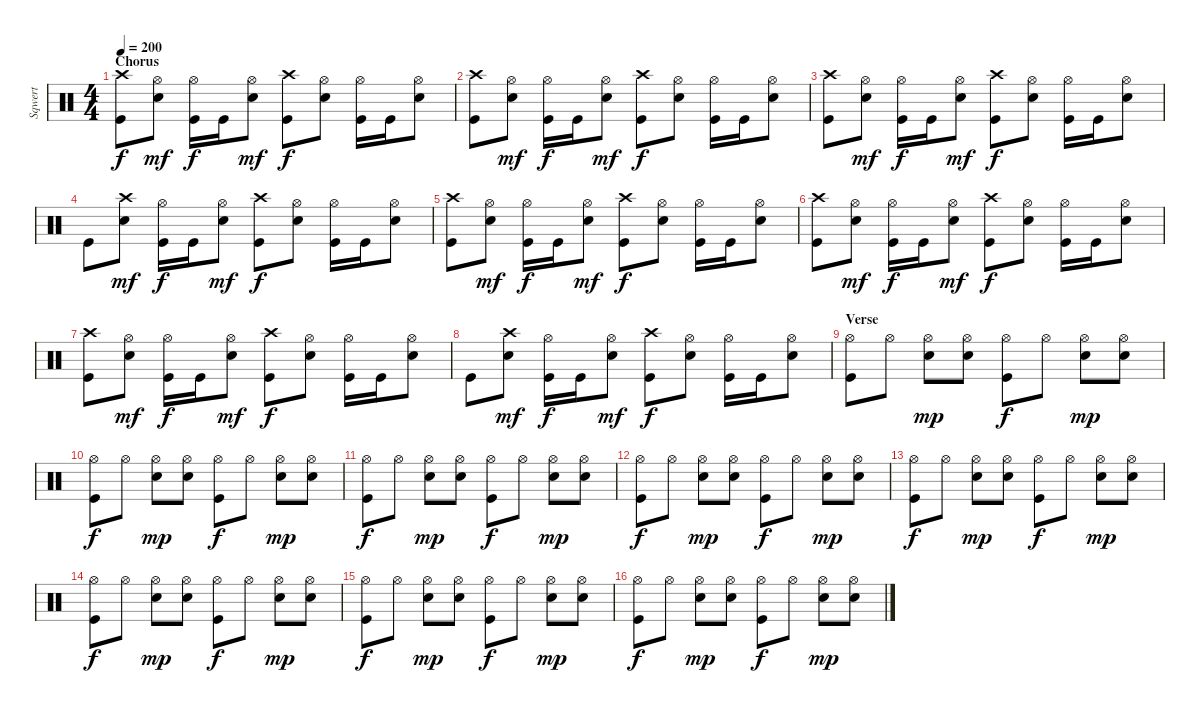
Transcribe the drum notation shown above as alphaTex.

\track ("Sqwert" "Sqwert") {instrument percussion}
\staff {score}
\articulation defaults
\ts (4 4)
\section ("" "Chorus")
\tempo 200
\clef neutral
\ks c
("Crash high (hit)" "Kick (hit)").8{dy f} ("Hi-Hat (open)" "Snare (hit) 2").8{dy mf} ("Hi-Hat (open)" "Kick (hit)").16{dy f} "Kick (hit)".16 ("Hi-Hat (open)" "Snare (hit) 2").8{dy mf} ("Crash high (hit)" "Kick (hit)").8{dy f} ("Hi-Hat (open)" "Snare (hit) 2").8 ("Hi-Hat (open)" "Kick (hit)").16 "Kick (hit)".16 ("Hi-Hat (open)" "Snare (hit) 2").8 |
("Crash high (hit)" "Kick (hit)").8 ("Hi-Hat (open)" "Snare (hit) 2").8{dy mf} ("Hi-Hat (open)" "Kick (hit)").16{dy f} "Kick (hit)".16 ("Hi-Hat (open)" "Snare (hit) 2").8{dy mf} ("Crash high (hit)" "Kick (hit)").8{dy f} ("Hi-Hat (open)" "Snare (hit) 2").8 ("Hi-Hat (open)" "Kick (hit)").16 "Kick (hit)".16 ("Hi-Hat (open)" "Snare (hit) 2").8 |
("Crash high (hit)" "Kick (hit)").8 ("Hi-Hat (open)" "Snare (hit) 2").8{dy mf} ("Hi-Hat (open)" "Kick (hit)").16{dy f} "Kick (hit)".16 ("Hi-Hat (open)" "Snare (hit) 2").8{dy mf} ("Crash high (hit)" "Kick (hit)").8{dy f} ("Hi-Hat (open)" "Snare (hit) 2").8 ("Hi-Hat (open)" "Kick (hit)").16 "Kick (hit)".16 ("Hi-Hat (open)" "Snare (hit) 2").8 |
"Kick (hit)".8 ("Crash high (hit)" "Snare (hit) 2").8{dy mf} ("Hi-Hat (open)" "Kick (hit)").16{dy f} "Kick (hit)".16 ("Hi-Hat (open)" "Snare (hit) 2").8{dy mf} ("Crash high (hit)" "Kick (hit)").8{dy f} ("Hi-Hat (open)" "Snare (hit) 2").8 ("Hi-Hat (open)" "Kick (hit)").16 "Kick (hit)".16 ("Hi-Hat (open)" "Snare (hit) 2").8 |
("Crash high (hit)" "Kick (hit)").8 ("Hi-Hat (open)" "Snare (hit) 2").8{dy mf} ("Hi-Hat (open)" "Kick (hit)").16{dy f} "Kick (hit)".16 ("Hi-Hat (open)" "Snare (hit) 2").8{dy mf} ("Crash high (hit)" "Kick (hit)").8{dy f} ("Hi-Hat (open)" "Snare (hit) 2").8 ("Hi-Hat (open)" "Kick (hit)").16 "Kick (hit)".16 ("Hi-Hat (open)" "Snare (hit) 2").8 |
("Crash high (hit)" "Kick (hit)").8 ("Hi-Hat (open)" "Snare (hit) 2").8{dy mf} ("Hi-Hat (open)" "Kick (hit)").16{dy f} "Kick (hit)".16 ("Hi-Hat (open)" "Snare (hit) 2").8{dy mf} ("Crash high (hit)" "Kick (hit)").8{dy f} ("Hi-Hat (open)" "Snare (hit) 2").8 ("Hi-Hat (open)" "Kick (hit)").16 "Kick (hit)".16 ("Hi-Hat (open)" "Snare (hit) 2").8 |
("Crash high (hit)" "Kick (hit)").8 ("Hi-Hat (open)" "Snare (hit) 2").8{dy mf} ("Hi-Hat (open)" "Kick (hit)").16{dy f} "Kick (hit)".16 ("Hi-Hat (open)" "Snare (hit) 2").8{dy mf} ("Crash high (hit)" "Kick (hit)").8{dy f} ("Hi-Hat (open)" "Snare (hit) 2").8 ("Hi-Hat (open)" "Kick (hit)").16 "Kick (hit)".16 ("Hi-Hat (open)" "Snare (hit) 2").8 |
"Kick (hit)".8 ("Crash high (hit)" "Snare (hit) 2").8{dy mf} ("Hi-Hat (open)" "Kick (hit)").16{dy f} "Kick (hit)".16 ("Hi-Hat (open)" "Snare (hit) 2").8{dy mf} ("Crash high (hit)" "Kick (hit)").8{dy f} ("Hi-Hat (open)" "Snare (hit) 2").8 ("Hi-Hat (open)" "Kick (hit)").16 "Kick (hit)".16 ("Hi-Hat (open)" "Snare (hit) 2").8 |
\section ("" "Verse")
("Hi-Hat (open)" "Kick (hit)").8 "Hi-Hat (open)".8 ("Hi-Hat (open)" "Snare (hit) 2").8{dy mp} ("Hi-Hat (open)" "Snare (hit) 2").8 ("Hi-Hat (open)" "Kick (hit)").8{dy f} "Hi-Hat (open)".8 ("Hi-Hat (open)" "Snare (hit) 2").8{dy mp} ("Hi-Hat (open)" "Snare (hit) 2").8 |
("Hi-Hat (open)" "Kick (hit)").8{dy f} "Hi-Hat (open)".8 ("Hi-Hat (open)" "Snare (hit) 2").8{dy mp} ("Hi-Hat (open)" "Snare (hit) 2").8 ("Hi-Hat (open)" "Kick (hit)").8{dy f} "Hi-Hat (open)".8 ("Hi-Hat (open)" "Snare (hit) 2").8{dy mp} ("Hi-Hat (open)" "Snare (hit) 2").8 |
("Hi-Hat (open)" "Kick (hit)").8{dy f} "Hi-Hat (open)".8 ("Hi-Hat (open)" "Snare (hit) 2").8{dy mp} ("Hi-Hat (open)" "Snare (hit) 2").8 ("Hi-Hat (open)" "Kick (hit)").8{dy f} "Hi-Hat (open)".8 ("Hi-Hat (open)" "Snare (hit) 2").8{dy mp} ("Hi-Hat (open)" "Snare (hit) 2").8 |
("Hi-Hat (open)" "Kick (hit)").8{dy f} "Hi-Hat (open)".8 ("Hi-Hat (open)" "Snare (hit) 2").8{dy mp} ("Hi-Hat (open)" "Snare (hit) 2").8 ("Hi-Hat (open)" "Kick (hit)").8{dy f} "Hi-Hat (open)".8 ("Hi-Hat (open)" "Snare (hit) 2").8{dy mp} ("Hi-Hat (open)" "Snare (hit) 2").8 |
("Hi-Hat (open)" "Kick (hit)").8{dy f} "Hi-Hat (open)".8 ("Hi-Hat (open)" "Snare (hit) 2").8{dy mp} ("Hi-Hat (open)" "Snare (hit) 2").8 ("Hi-Hat (open)" "Kick (hit)").8{dy f} "Hi-Hat (open)".8 ("Hi-Hat (open)" "Snare (hit) 2").8{dy mp} ("Hi-Hat (open)" "Snare (hit) 2").8 |
("Hi-Hat (open)" "Kick (hit)").8{dy f} "Hi-Hat (open)".8 ("Hi-Hat (open)" "Snare (hit) 2").8{dy mp} ("Hi-Hat (open)" "Snare (hit) 2").8 ("Hi-Hat (open)" "Kick (hit)").8{dy f} "Hi-Hat (open)".8 ("Hi-Hat (open)" "Snare (hit) 2").8{dy mp} ("Hi-Hat (open)" "Snare (hit) 2").8 |
("Hi-Hat (open)" "Kick (hit)").8{dy f} "Hi-Hat (open)".8 ("Hi-Hat (open)" "Snare (hit) 2").8{dy mp} ("Hi-Hat (open)" "Snare (hit) 2").8 ("Hi-Hat (open)" "Kick (hit)").8{dy f} "Hi-Hat (open)".8 ("Hi-Hat (open)" "Snare (hit) 2").8{dy mp} ("Hi-Hat (open)" "Snare (hit) 2").8 |
("Hi-Hat (open)" "Kick (hit)").8{dy f} "Hi-Hat (open)".8 ("Hi-Hat (open)" "Snare (hit) 2").8{dy mp} ("Hi-Hat (open)" "Snare (hit) 2").8 ("Hi-Hat (open)" "Kick (hit)").8{dy f} "Hi-Hat (open)".8 ("Hi-Hat (open)" "Snare (hit) 2").8{dy mp} ("Hi-Hat (open)" "Snare (hit) 2").8
